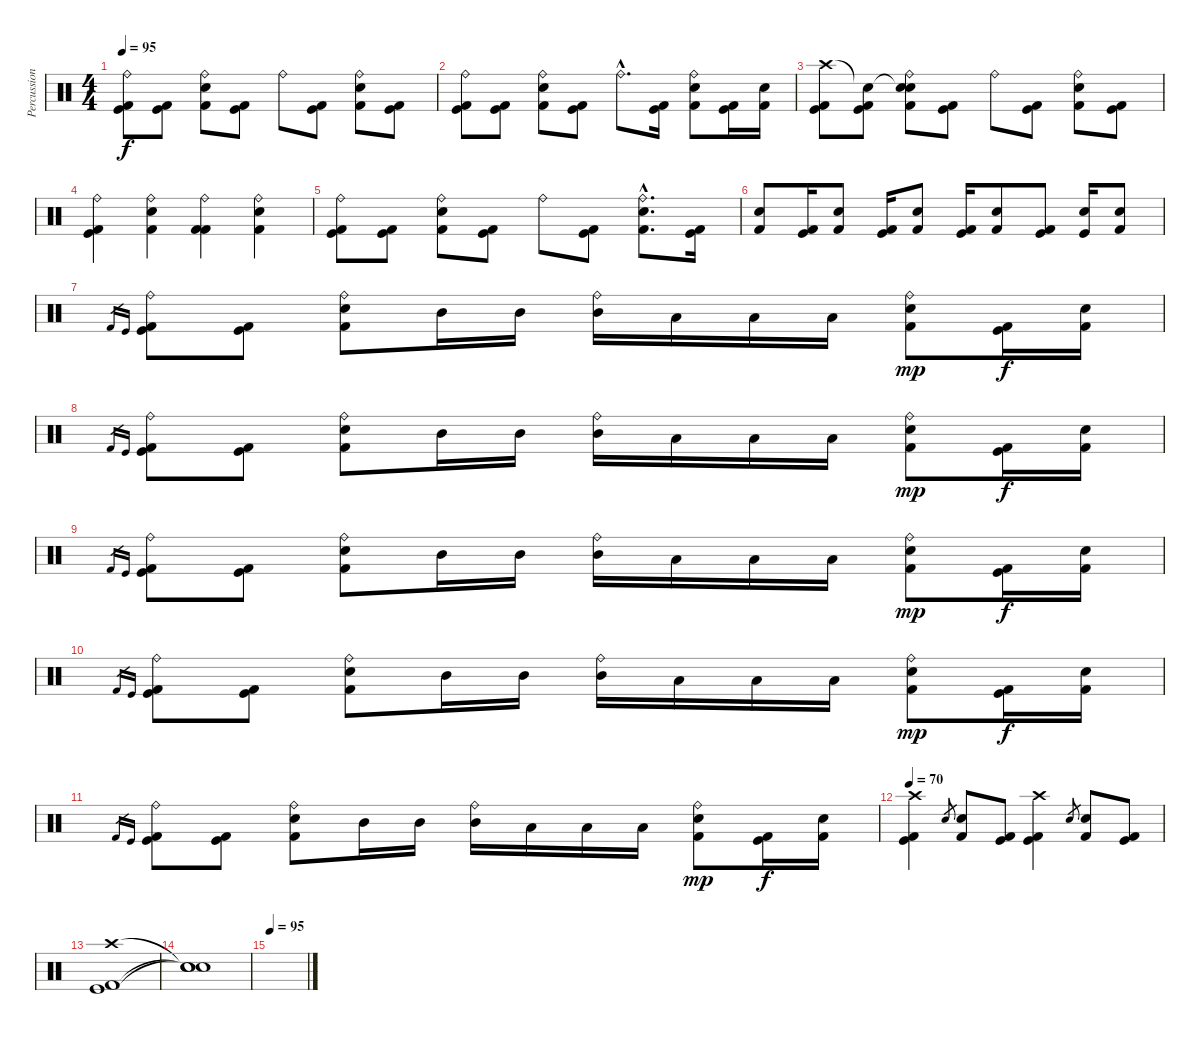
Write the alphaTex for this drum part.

\track ("Percussion" "Percussion") {instrument percussion}
\staff {score}
\articulation defaults
\ts (4 4)
\tempo 95
\clef neutral
\ks c
("Ride (bell)" "Kick (hit) 2" "Kick (hit)").8{dy f} ("Kick (hit)" "Kick (hit) 2").8 ("Ride (bell)" "Snare (hit) 2" "Kick (hit) 2").8 ("Kick (hit) 2" "Kick (hit)").8 "Ride (bell)".8 ("Kick (hit) 2" "Kick (hit)").8 ("Ride (bell)" "Snare (hit) 2" "Kick (hit) 2").8 ("Kick (hit) 2" "Kick (hit)").8 |
("Ride (bell)" "Kick (hit) 2" "Kick (hit)").8 ("Kick (hit)" "Kick (hit) 2").8 ("Ride (bell)" "Snare (hit) 2" "Kick (hit) 2").8 ("Kick (hit) 2" "Kick (hit)").8 "Ride (bell)"{hac}.8{d} ("Kick (hit) 2" "Kick (hit)").16 ("Ride (bell)" "Snare (hit) 2" "Kick (hit) 2").8 ("Kick (hit) 2" "Kick (hit)").16 ("Snare (hit) 2" "Kick (hit) 2").16 |
("Crash high (hit)" "Kick (hit) 2" "Kick (hit)").8 ("Snare (hit)"{t} "Kick (hit)" "Kick (hit) 2").8 ("Snare (hit)"{t} "Ride (bell)" "Snare (hit) 2" "Kick (hit) 2").8 ("Kick (hit) 2" "Kick (hit)").8 "Ride (bell)".8 ("Kick (hit) 2" "Kick (hit)").8 ("Ride (bell)" "Snare (hit) 2" "Kick (hit) 2").8 ("Kick (hit) 2" "Kick (hit)").8 |
("Ride (bell)" "Kick (hit) 2" "Kick (hit)").4 ("Ride (bell)" "Snare (hit) 2" "Kick (hit) 2").4 ("Ride (bell)" "Kick (hit) 2" "Kick (hit) 2").4 ("Ride (bell)" "Snare (hit) 2" "Kick (hit) 2").4 |
("Ride (bell)" "Kick (hit) 2" "Kick (hit)").8 ("Kick (hit)" "Kick (hit) 2").8 ("Ride (bell)" "Snare (hit) 2" "Kick (hit) 2").8 ("Kick (hit) 2" "Kick (hit)").8 "Ride (bell)".8 ("Kick (hit) 2" "Kick (hit)").8 ("Ride (bell)"{hac} "Snare (hit) 2"{hac} "Kick (hit) 2"{hac}).8{d} ("Kick (hit) 2" "Kick (hit)").16 |
("Snare (hit) 2" "Kick (hit) 2").8 ("Kick (hit)" "Kick (hit) 2").16 ("Snare (hit) 2" "Kick (hit) 2").8 ("Kick (hit)" "Kick (hit) 2").16 ("Snare (hit) 2" "Kick (hit) 2").8 ("Kick (hit)" "Kick (hit) 2").16 ("Snare (hit) 2" "Kick (hit) 2").8 ("Kick (hit) 2" "Kick (hit)").8 ("Snare (hit) 2" "Kick (hit)").16 ("Snare (hit) 2" "Kick (hit) 2").8 |
"Kick (hit) 2".16{gr} "Kick (hit)".16{gr} ("Ride (bell)" "Kick (hit) 2" "Kick (hit)").8 ("Kick (hit) 2" "Kick (hit)").8 ("Ride (bell)" "Snare (hit) 2" "Kick (hit) 2").8 "Mid Tom (hit)".16 "Mid Tom (hit)".16 ("Ride (bell)" "Mid Tom (hit)").16 "Low Tom (hit)".16 "Low Tom (hit)".16 "Low Tom (hit)".16 ("Ride (bell)" "Snare (hit) 2" "Kick (hit) 2").8{dy mp} ("Kick (hit) 2" "Kick (hit)").16{dy f} ("Snare (hit) 2" "Kick (hit) 2").16 |
"Kick (hit) 2".16{gr} "Kick (hit)".16{gr} ("Ride (bell)" "Kick (hit) 2" "Kick (hit)").8 ("Kick (hit) 2" "Kick (hit)").8 ("Ride (bell)" "Snare (hit) 2" "Kick (hit) 2").8 "Mid Tom (hit)".16 "Mid Tom (hit)".16 ("Ride (bell)" "Mid Tom (hit)").16 "Low Tom (hit)".16 "Low Tom (hit)".16 "Low Tom (hit)".16 ("Ride (bell)" "Snare (hit) 2" "Kick (hit) 2").8{dy mp} ("Kick (hit) 2" "Kick (hit)").16{dy f} ("Snare (hit) 2" "Kick (hit) 2").16 |
"Kick (hit) 2".16{gr} "Kick (hit)".16{gr} ("Ride (bell)" "Kick (hit) 2" "Kick (hit)").8 ("Kick (hit) 2" "Kick (hit)").8 ("Ride (bell)" "Snare (hit) 2" "Kick (hit) 2").8 "Mid Tom (hit)".16 "Mid Tom (hit)".16 ("Ride (bell)" "Mid Tom (hit)").16 "Low Tom (hit)".16 "Low Tom (hit)".16 "Low Tom (hit)".16 ("Ride (bell)" "Snare (hit) 2" "Kick (hit) 2").8{dy mp} ("Kick (hit) 2" "Kick (hit)").16{dy f} ("Snare (hit) 2" "Kick (hit) 2").16 |
"Kick (hit) 2".16{gr} "Kick (hit)".16{gr} ("Ride (bell)" "Kick (hit) 2" "Kick (hit)").8 ("Kick (hit) 2" "Kick (hit)").8 ("Ride (bell)" "Snare (hit) 2" "Kick (hit) 2").8 "Mid Tom (hit)".16 "Mid Tom (hit)".16 ("Ride (bell)" "Mid Tom (hit)").16 "Low Tom (hit)".16 "Low Tom (hit)".16 "Low Tom (hit)".16 ("Ride (bell)" "Snare (hit) 2" "Kick (hit) 2").8{dy mp} ("Kick (hit) 2" "Kick (hit)").16{dy f} ("Snare (hit) 2" "Kick (hit) 2").16 |
"Kick (hit) 2".16{gr} "Kick (hit)".16{gr} ("Ride (bell)" "Kick (hit) 2" "Kick (hit)").8 ("Kick (hit) 2" "Kick (hit)").8 ("Ride (bell)" "Snare (hit) 2" "Kick (hit) 2").8 "Mid Tom (hit)".16 "Mid Tom (hit)".16 ("Ride (bell)" "Mid Tom (hit)").16 "Low Tom (hit)".16 "Low Tom (hit)".16 "Low Tom (hit)".16 ("Ride (bell)" "Snare (hit) 2" "Kick (hit) 2").8{dy mp} ("Kick (hit) 2" "Kick (hit)").16{dy f} ("Snare (hit) 2" "Kick (hit) 2").16 |
\tempo 70
("Crash high (hit)" "Kick (hit) 2" "Kick (hit)").4 "Snare (hit) 2".8{gr} ("Snare (hit) 2" "Kick (hit) 2").8 ("Kick (hit) 2" "Kick (hit)").8 ("Crash high (hit)" "Kick (hit)" "Kick (hit) 2").4 "Snare (hit) 2".8{gr} ("Snare (hit) 2" "Kick (hit) 2").8 ("Kick (hit) 2" "Kick (hit)").8 |
("Crash high (hit)" "Kick (hit) 2" "Kick (hit)").1 |
("Snare (hit)"{t} "Snare (hit)"{t} "Snare (hit)"{t}).1 |
\tempo 95
